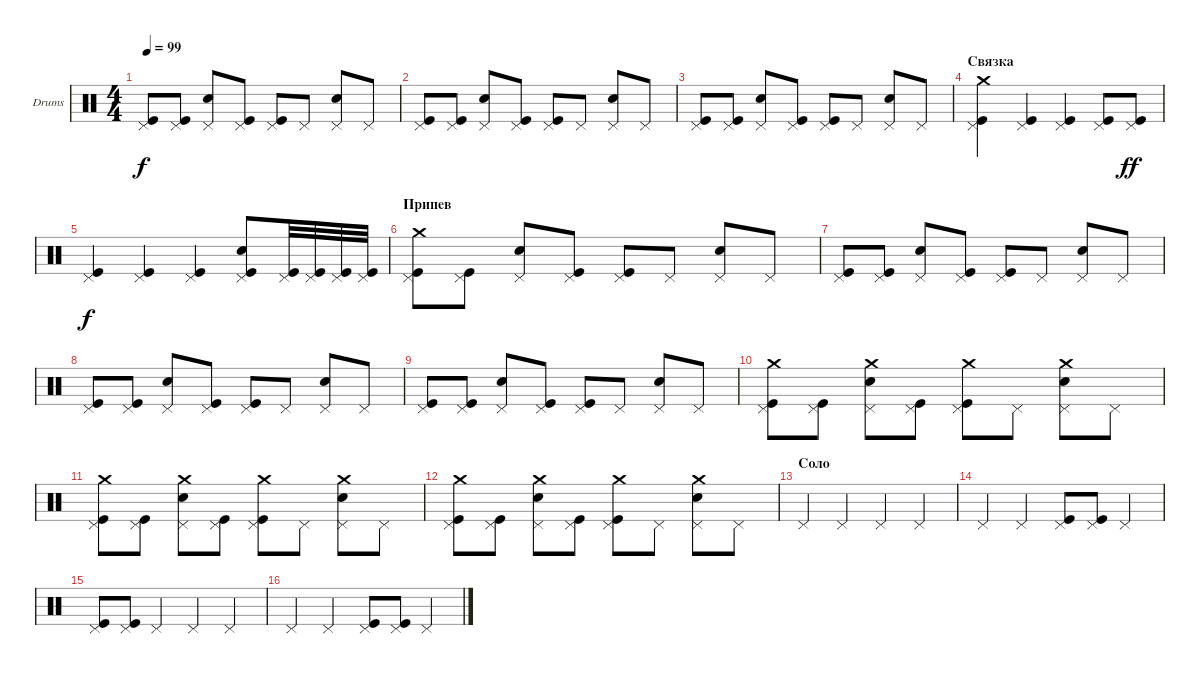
\defaultSystemsLayout 4
\bracketExtendMode groupsimilarinstruments
\firstSystemTrackNameOrientation horizontal
\otherSystemsTrackNameOrientation horizontal
\track ("Е. Кулаков" "Drums") {instrument percussion}
\staff {score}
\articulation defaults
\ts (4 4)
\tempo 99
\clef neutral
\ks c
("Pedal Hi-Hat (hit)" "Kick (hit)").8{dy f} ("Pedal Hi-Hat (hit)" "Kick (hit)").8 ("Snare (hit) 2" "Pedal Hi-Hat (hit)").8 ("Pedal Hi-Hat (hit)" "Kick (hit)").8 ("Pedal Hi-Hat (hit)" "Kick (hit)").8 "Pedal Hi-Hat (hit)".8 ("Snare (hit) 2" "Pedal Hi-Hat (hit)").8 "Pedal Hi-Hat (hit)".8 |
("Pedal Hi-Hat (hit)" "Kick (hit)").8 ("Pedal Hi-Hat (hit)" "Kick (hit)").8 ("Snare (hit) 2" "Pedal Hi-Hat (hit)").8 ("Pedal Hi-Hat (hit)" "Kick (hit)").8 ("Pedal Hi-Hat (hit)" "Kick (hit)").8 "Pedal Hi-Hat (hit)".8 ("Snare (hit) 2" "Pedal Hi-Hat (hit)").8 "Pedal Hi-Hat (hit)".8 |
("Pedal Hi-Hat (hit)" "Kick (hit)").8 ("Pedal Hi-Hat (hit)" "Kick (hit)").8 ("Snare (hit) 2" "Pedal Hi-Hat (hit)").8 ("Pedal Hi-Hat (hit)" "Kick (hit)").8 ("Pedal Hi-Hat (hit)" "Kick (hit)").8 "Pedal Hi-Hat (hit)".8 ("Snare (hit) 2" "Pedal Hi-Hat (hit)").8 "Pedal Hi-Hat (hit)".8 |
\section ("" "Связка")
("Pedal Hi-Hat (hit)" "Kick (hit)" "Crash medium (hit)").4 ("Pedal Hi-Hat (hit)" "Kick (hit)").4 ("Pedal Hi-Hat (hit)" "Kick (hit)").4 ("Pedal Hi-Hat (hit)" "Kick (hit)").8 ("Pedal Hi-Hat (hit)" "Kick (hit)").8{dy ff} |
("Pedal Hi-Hat (hit)" "Kick (hit)").4{dy f} ("Pedal Hi-Hat (hit)" "Kick (hit)").4 ("Pedal Hi-Hat (hit)" "Kick (hit)").4 ("Pedal Hi-Hat (hit)" "Kick (hit)" "Snare (hit) 2").8 ("Pedal Hi-Hat (hit)" "Kick (hit)").32 ("Pedal Hi-Hat (hit)" "Kick (hit)").32 ("Pedal Hi-Hat (hit)" "Kick (hit)").32 ("Pedal Hi-Hat (hit)" "Kick (hit)").32 |
\section ("" "Припев")
("Pedal Hi-Hat (hit)" "Kick (hit)" "Crash medium (hit)").8 ("Pedal Hi-Hat (hit)" "Kick (hit)").8 ("Snare (hit) 2" "Pedal Hi-Hat (hit)").8 ("Pedal Hi-Hat (hit)" "Kick (hit)").8 ("Pedal Hi-Hat (hit)" "Kick (hit)").8 "Pedal Hi-Hat (hit)".8 ("Snare (hit) 2" "Pedal Hi-Hat (hit)").8 "Pedal Hi-Hat (hit)".8 |
("Pedal Hi-Hat (hit)" "Kick (hit)").8 ("Pedal Hi-Hat (hit)" "Kick (hit)").8 ("Snare (hit) 2" "Pedal Hi-Hat (hit)").8 ("Pedal Hi-Hat (hit)" "Kick (hit)").8 ("Pedal Hi-Hat (hit)" "Kick (hit)").8 "Pedal Hi-Hat (hit)".8 ("Snare (hit) 2" "Pedal Hi-Hat (hit)").8 "Pedal Hi-Hat (hit)".8 |
("Pedal Hi-Hat (hit)" "Kick (hit)").8 ("Pedal Hi-Hat (hit)" "Kick (hit)").8 ("Snare (hit) 2" "Pedal Hi-Hat (hit)").8 ("Pedal Hi-Hat (hit)" "Kick (hit)").8 ("Pedal Hi-Hat (hit)" "Kick (hit)").8 "Pedal Hi-Hat (hit)".8 ("Snare (hit) 2" "Pedal Hi-Hat (hit)").8 "Pedal Hi-Hat (hit)".8 |
("Pedal Hi-Hat (hit)" "Kick (hit)").8 ("Pedal Hi-Hat (hit)" "Kick (hit)").8 ("Snare (hit) 2" "Pedal Hi-Hat (hit)").8 ("Pedal Hi-Hat (hit)" "Kick (hit)").8 ("Pedal Hi-Hat (hit)" "Kick (hit)").8 "Pedal Hi-Hat (hit)".8 ("Snare (hit) 2" "Pedal Hi-Hat (hit)").8 "Pedal Hi-Hat (hit)".8 |
("Pedal Hi-Hat (hit)" "Kick (hit)" "Crash medium (hit)").8 ("Pedal Hi-Hat (hit)" "Kick (hit)").8 ("Snare (hit) 2" "Pedal Hi-Hat (hit)" "Crash medium (hit)").8 ("Pedal Hi-Hat (hit)" "Kick (hit)").8 ("Pedal Hi-Hat (hit)" "Kick (hit)" "Crash medium (hit)").8 "Pedal Hi-Hat (hit)".8 ("Snare (hit) 2" "Pedal Hi-Hat (hit)" "Crash medium (hit)").8 "Pedal Hi-Hat (hit)".8 |
("Pedal Hi-Hat (hit)" "Kick (hit)" "Crash medium (hit)").8 ("Pedal Hi-Hat (hit)" "Kick (hit)").8 ("Snare (hit) 2" "Pedal Hi-Hat (hit)" "Crash medium (hit)").8 ("Pedal Hi-Hat (hit)" "Kick (hit)").8 ("Pedal Hi-Hat (hit)" "Kick (hit)" "Crash medium (hit)").8 "Pedal Hi-Hat (hit)".8 ("Snare (hit) 2" "Pedal Hi-Hat (hit)" "Crash medium (hit)").8 "Pedal Hi-Hat (hit)".8 |
("Pedal Hi-Hat (hit)" "Kick (hit)" "Crash medium (hit)").8 ("Pedal Hi-Hat (hit)" "Kick (hit)").8 ("Snare (hit) 2" "Pedal Hi-Hat (hit)" "Crash medium (hit)").8 ("Pedal Hi-Hat (hit)" "Kick (hit)").8 ("Pedal Hi-Hat (hit)" "Kick (hit)" "Crash medium (hit)").8 "Pedal Hi-Hat (hit)".8 ("Snare (hit) 2" "Pedal Hi-Hat (hit)" "Crash medium (hit)").8 "Pedal Hi-Hat (hit)".8 |
\section ("" "Соло")
"Pedal Hi-Hat (hit)".4 "Pedal Hi-Hat (hit)".4 "Pedal Hi-Hat (hit)".4 "Pedal Hi-Hat (hit)".4 |
"Pedal Hi-Hat (hit)".4 "Pedal Hi-Hat (hit)".4 ("Pedal Hi-Hat (hit)" "Kick (hit)").8 ("Pedal Hi-Hat (hit)" "Kick (hit)").8 "Pedal Hi-Hat (hit)".4 |
("Pedal Hi-Hat (hit)" "Kick (hit)").8 ("Pedal Hi-Hat (hit)" "Kick (hit)").8 "Pedal Hi-Hat (hit)".4 "Pedal Hi-Hat (hit)".4 "Pedal Hi-Hat (hit)".4 |
"Pedal Hi-Hat (hit)".4 "Pedal Hi-Hat (hit)".4 ("Pedal Hi-Hat (hit)" "Kick (hit)").8 ("Pedal Hi-Hat (hit)" "Kick (hit)").8 "Pedal Hi-Hat (hit)".4
